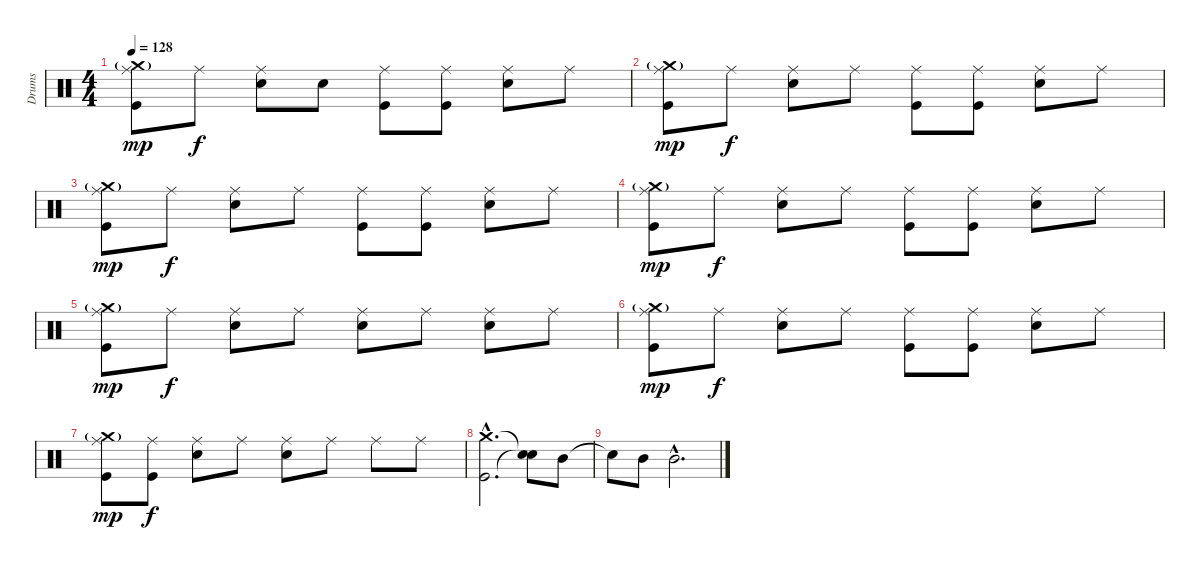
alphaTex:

\track ("Drums" "Drums") {instrument percussion}
\staff {score}
\articulation defaults
\ts (4 4)
\tempo 128
\clef neutral
\ks c
("Ride (middle)" "Crash medium (hit)"{g} "Kick (hit)").8{dy mp} "Ride (middle)".8{dy f} ("Ride (middle)" "Snare (hit) 2").8 "Snare (hit)".8 ("Ride (middle)" "Kick (hit)").8 ("Ride (middle)" "Kick (hit)").8 ("Ride (middle)" "Snare (hit) 2").8 "Ride (middle)".8 |
("Ride (middle)" "Crash medium (hit)"{g} "Kick (hit)").8{dy mp} "Ride (middle)".8{dy f} ("Ride (middle)" "Snare (hit) 2").8 "Ride (middle)".8 ("Ride (middle)" "Kick (hit)").8 ("Ride (middle)" "Kick (hit)").8 ("Ride (middle)" "Snare (hit) 2").8 "Ride (middle)".8 |
("Ride (middle)" "Crash medium (hit)"{g} "Kick (hit)").8{dy mp} "Ride (middle)".8{dy f} ("Ride (middle)" "Snare (hit) 2").8 "Ride (middle)".8 ("Ride (middle)" "Kick (hit)").8 ("Ride (middle)" "Kick (hit)").8 ("Ride (middle)" "Snare (hit) 2").8 "Ride (middle)".8 |
("Ride (middle)" "Crash medium (hit)"{g} "Kick (hit)").8{dy mp} "Ride (middle)".8{dy f} ("Ride (middle)" "Snare (hit) 2").8 "Ride (middle)".8 ("Ride (middle)" "Kick (hit)").8 ("Ride (middle)" "Kick (hit)").8 ("Ride (middle)" "Snare (hit) 2").8 "Ride (middle)".8 |
("Ride (middle)" "Crash medium (hit)"{g} "Kick (hit)").8{dy mp} "Ride (middle)".8{dy f} ("Ride (middle)" "Snare (hit) 2").8 "Ride (middle)".8 ("Ride (middle)" "Snare (hit) 2").8 "Ride (middle)".8 ("Ride (middle)" "Snare (hit) 2").8 "Ride (middle)".8 |
("Ride (middle)" "Crash medium (hit)"{g} "Kick (hit)").8{dy mp} "Ride (middle)".8{dy f} ("Ride (middle)" "Snare (hit) 2").8 "Ride (middle)".8 ("Ride (middle)" "Kick (hit)").8 ("Ride (middle)" "Kick (hit)").8 ("Ride (middle)" "Snare (hit) 2").8 "Ride (middle)".8 |
("Ride (middle)" "Crash medium (hit)"{g} "Kick (hit)").8{dy mp} ("Ride (middle)" "Kick (hit)").8{dy f} ("Ride (middle)" "Snare (hit) 2").8 "Ride (middle)".8 ("Ride (middle)" "Snare (hit) 2").8 "Ride (middle)".8 "Ride (middle)".8 "Ride (middle)".8 |
("Crash medium (hit)"{hac} "Kick (hit)"{hac}).2{d} ("Snare (hit)"{t} "Snare (hit)"{t}).8 "Mid Tom (hit)".8 |
"Snare (hit)"{t}.8 "Mid Tom (hit)".8 "Mid Tom (hit)"{hac}.2{d}
